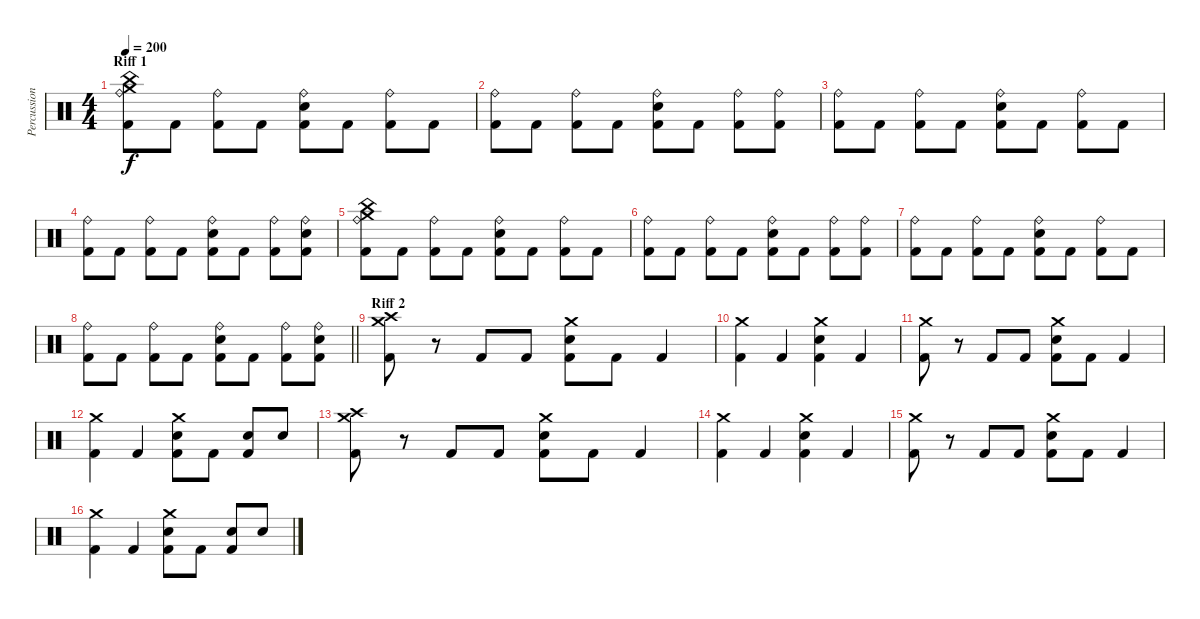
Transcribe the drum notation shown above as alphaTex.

\track ("Percussion" "Percussion") {instrument percussion}
\staff {score}
\articulation defaults
\ts (4 4)
\section ("" "Riff 1")
\tempo 200
\clef neutral
\ks c
("China (hit)" "Ride (bell)" "Crash medium (hit)" "Kick (hit) 2").8{dy f} "Kick (hit) 2".8 ("Ride (bell)" "Kick (hit) 2").8 "Kick (hit) 2".8 ("Ride (bell)" "Electric Snare (hit)" "Kick (hit) 2").8 "Kick (hit) 2".8 ("Ride (bell)" "Kick (hit) 2").8 "Kick (hit) 2".8 |
("Ride (bell)" "Kick (hit) 2").8 "Kick (hit) 2".8 ("Ride (bell)" "Kick (hit) 2").8 "Kick (hit) 2".8 ("Ride (bell)" "Electric Snare (hit)" "Kick (hit) 2").8 "Kick (hit) 2".8 ("Ride (bell)" "Kick (hit) 2").8 ("Ride (bell)" "Kick (hit) 2").8 |
("Ride (bell)" "Kick (hit) 2").8 "Kick (hit) 2".8 ("Ride (bell)" "Kick (hit) 2").8 "Kick (hit) 2".8 ("Ride (bell)" "Electric Snare (hit)" "Kick (hit) 2").8 "Kick (hit) 2".8 ("Ride (bell)" "Kick (hit) 2").8 "Kick (hit) 2".8 |
("Ride (bell)" "Kick (hit) 2").8 "Kick (hit) 2".8 ("Ride (bell)" "Kick (hit) 2").8 "Kick (hit) 2".8 ("Ride (bell)" "Electric Snare (hit)" "Kick (hit) 2").8 "Kick (hit) 2".8 ("Ride (bell)" "Kick (hit) 2").8 ("Ride (bell)" "Electric Snare (hit)" "Kick (hit) 2").8 |
("China (hit)" "Ride (bell)" "Crash medium (hit)" "Kick (hit) 2").8 "Kick (hit) 2".8 ("Ride (bell)" "Kick (hit) 2").8 "Kick (hit) 2".8 ("Ride (bell)" "Electric Snare (hit)" "Kick (hit) 2").8 "Kick (hit) 2".8 ("Ride (bell)" "Kick (hit) 2").8 "Kick (hit) 2".8 |
("Ride (bell)" "Kick (hit) 2").8 "Kick (hit) 2".8 ("Ride (bell)" "Kick (hit) 2").8 "Kick (hit) 2".8 ("Ride (bell)" "Electric Snare (hit)" "Kick (hit) 2").8 "Kick (hit) 2".8 ("Ride (bell)" "Kick (hit) 2").8 ("Ride (bell)" "Kick (hit) 2").8 |
("Ride (bell)" "Kick (hit) 2").8 "Kick (hit) 2".8 ("Ride (bell)" "Kick (hit) 2").8 "Kick (hit) 2".8 ("Ride (bell)" "Electric Snare (hit)" "Kick (hit) 2").8 "Kick (hit) 2".8 ("Ride (bell)" "Kick (hit) 2").8 "Kick (hit) 2".8 |
\barLineRight lightlight
("Ride (bell)" "Kick (hit) 2").8 "Kick (hit) 2".8 ("Ride (bell)" "Kick (hit) 2").8 "Kick (hit) 2".8 ("Ride (bell)" "Electric Snare (hit)" "Kick (hit) 2").8 "Kick (hit) 2".8 ("Ride (bell)" "Kick (hit) 2").8 ("Ride (bell)" "Electric Snare (hit)" "Kick (hit) 2").8 |
\section ("" "Riff 2")
("Crash high (hit)" "Crash medium (hit)" "Kick (hit) 2").8 r.8 "Kick (hit) 2".8 "Kick (hit) 2".8 ("Crash medium (hit)" "Electric Snare (hit)" "Kick (hit) 2").8 "Kick (hit) 2".8 "Kick (hit) 2".4 |
("Crash medium (hit)" "Kick (hit) 2").4 "Kick (hit) 2".4 ("Crash medium (hit)" "Electric Snare (hit)" "Kick (hit) 2").4 "Kick (hit) 2".4 |
("Crash medium (hit)" "Kick (hit) 2").8 r.8 "Kick (hit) 2".8 "Kick (hit) 2".8 ("Crash medium (hit)" "Electric Snare (hit)" "Kick (hit) 2").8 "Kick (hit) 2".8 "Kick (hit) 2".4 |
("Crash medium (hit)" "Kick (hit) 2").4 "Kick (hit) 2".4 ("Crash medium (hit)" "Electric Snare (hit)" "Kick (hit) 2").8 "Kick (hit) 2".8 ("Electric Snare (hit)" "Kick (hit) 2").8 "Electric Snare (hit)".8 |
("Crash high (hit)" "Crash medium (hit)" "Kick (hit) 2").8 r.8 "Kick (hit) 2".8 "Kick (hit) 2".8 ("Crash medium (hit)" "Electric Snare (hit)" "Kick (hit) 2").8 "Kick (hit) 2".8 "Kick (hit) 2".4 |
("Crash medium (hit)" "Kick (hit) 2").4 "Kick (hit) 2".4 ("Crash medium (hit)" "Electric Snare (hit)" "Kick (hit) 2").4 "Kick (hit) 2".4 |
("Crash medium (hit)" "Kick (hit) 2").8 r.8 "Kick (hit) 2".8 "Kick (hit) 2".8 ("Crash medium (hit)" "Electric Snare (hit)" "Kick (hit) 2").8 "Kick (hit) 2".8 "Kick (hit) 2".4 |
("Crash medium (hit)" "Kick (hit) 2").4 "Kick (hit) 2".4 ("Crash medium (hit)" "Electric Snare (hit)" "Kick (hit) 2").8 "Kick (hit) 2".8 ("Electric Snare (hit)" "Kick (hit) 2").8 "Electric Snare (hit)".8
